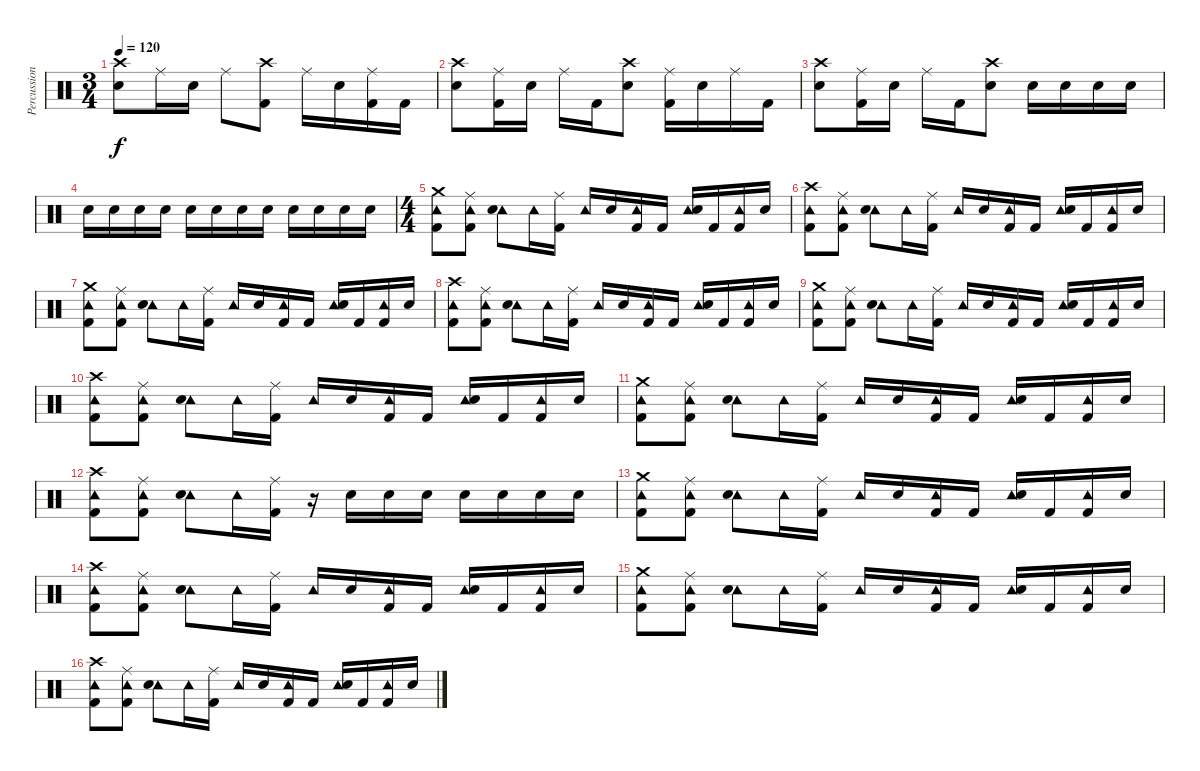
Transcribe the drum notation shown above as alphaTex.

\track ("Percussion" "Percussion") {instrument percussion}
\staff {score}
\articulation defaults
\ts (3 4)
\tempo 120
\clef neutral
\ks c
("Crash high (hit)" "Snare (hit) 2").8{dy f} "Ride (middle)".16 "Snare (hit) 2".16 "Ride (middle)".8 ("Crash high (hit)" "Kick (hit) 2").8 "Ride (middle)".16 "Snare (hit) 2".16 ("Ride (middle)" "Kick (hit) 2").16 "Kick (hit) 2".16 |
("Crash high (hit)" "Snare (hit) 2").8 ("Ride (middle)" "Kick (hit) 2").16 "Snare (hit) 2".16 "Ride (middle)".16 "Kick (hit) 2".16 ("Crash high (hit)" "Snare (hit) 2").8 ("Ride (middle)" "Kick (hit) 2").16 "Snare (hit) 2".16 "Ride (middle)".16 "Kick (hit) 2".16 |
("Crash high (hit)" "Snare (hit) 2").8 ("Ride (middle)" "Kick (hit) 2").16 "Snare (hit) 2".16 "Ride (middle)".16 "Kick (hit) 2".16 ("Crash high (hit)" "Snare (hit) 2").8 "Snare (hit) 2".16 "Snare (hit) 2".16 "Snare (hit) 2".16 "Snare (hit) 2".16 |
"Snare (hit) 2".16 "Snare (hit) 2".16 "Snare (hit) 2".16 "Snare (hit) 2".16 "Snare (hit) 2".16 "Snare (hit) 2".16 "Snare (hit) 2".16 "Snare (hit) 2".16 "Snare (hit) 2".16 "Snare (hit) 2".16 "Snare (hit) 2".16 "Snare (hit) 2".16 |
\ts (4 4)
("Crash medium (hit)" "Tambourine (hit)" "Kick (hit) 2").8 ("Ride (middle)" "Tambourine (hit)" "Kick (hit) 2").8 ("Tambourine (hit)" "Snare (hit) 2").8 "Tambourine (hit)".16 ("Ride (middle)" "Kick (hit) 2").16 "Tambourine (hit)".16 "Snare (hit) 2".16 ("Tambourine (hit)" "Kick (hit) 2").16 "Kick (hit) 2".16 ("Tambourine (hit)" "Snare (hit) 2").16 "Kick (hit) 2".16 ("Tambourine (hit)" "Kick (hit) 2").16 "Snare (hit) 2".16 |
("Crash high (hit)" "Tambourine (hit)" "Kick (hit) 2").8 ("Ride (middle)" "Tambourine (hit)" "Kick (hit) 2").8 ("Tambourine (hit)" "Snare (hit) 2").8 "Tambourine (hit)".16 ("Ride (middle)" "Kick (hit) 2").16 "Tambourine (hit)".16 "Snare (hit) 2".16 ("Tambourine (hit)" "Kick (hit) 2").16 "Kick (hit) 2".16 ("Tambourine (hit)" "Snare (hit) 2").16 "Kick (hit) 2".16 ("Tambourine (hit)" "Kick (hit) 2").16 "Snare (hit) 2".16 |
("Crash medium (hit)" "Tambourine (hit)" "Kick (hit) 2").8 ("Ride (middle)" "Tambourine (hit)" "Kick (hit) 2").8 ("Tambourine (hit)" "Snare (hit) 2").8 "Tambourine (hit)".16 ("Ride (middle)" "Kick (hit) 2").16 "Tambourine (hit)".16 "Snare (hit) 2".16 ("Tambourine (hit)" "Kick (hit) 2").16 "Kick (hit) 2".16 ("Tambourine (hit)" "Snare (hit) 2").16 "Kick (hit) 2".16 ("Tambourine (hit)" "Kick (hit) 2").16 "Snare (hit) 2".16 |
("Crash high (hit)" "Tambourine (hit)" "Kick (hit) 2").8 ("Ride (middle)" "Tambourine (hit)" "Kick (hit) 2").8 ("Tambourine (hit)" "Snare (hit) 2").8 "Tambourine (hit)".16 ("Ride (middle)" "Kick (hit) 2").16 "Tambourine (hit)".16 "Snare (hit) 2".16 ("Tambourine (hit)" "Kick (hit) 2").16 "Kick (hit) 2".16 ("Tambourine (hit)" "Snare (hit) 2").16 "Kick (hit) 2".16 ("Tambourine (hit)" "Kick (hit) 2").16 "Snare (hit) 2".16 |
("Crash medium (hit)" "Tambourine (hit)" "Kick (hit) 2").8 ("Ride (middle)" "Tambourine (hit)" "Kick (hit) 2").8 ("Tambourine (hit)" "Snare (hit) 2").8 "Tambourine (hit)".16 ("Ride (middle)" "Kick (hit) 2").16 "Tambourine (hit)".16 "Snare (hit) 2".16 ("Tambourine (hit)" "Kick (hit) 2").16 "Kick (hit) 2".16 ("Tambourine (hit)" "Snare (hit) 2").16 "Kick (hit) 2".16 ("Tambourine (hit)" "Kick (hit) 2").16 "Snare (hit) 2".16 |
("Crash high (hit)" "Tambourine (hit)" "Kick (hit) 2").8 ("Ride (middle)" "Tambourine (hit)" "Kick (hit) 2").8 ("Tambourine (hit)" "Snare (hit) 2").8 "Tambourine (hit)".16 ("Ride (middle)" "Kick (hit) 2").16 "Tambourine (hit)".16 "Snare (hit) 2".16 ("Tambourine (hit)" "Kick (hit) 2").16 "Kick (hit) 2".16 ("Tambourine (hit)" "Snare (hit) 2").16 "Kick (hit) 2".16 ("Tambourine (hit)" "Kick (hit) 2").16 "Snare (hit) 2".16 |
("Crash medium (hit)" "Tambourine (hit)" "Kick (hit) 2").8 ("Ride (middle)" "Tambourine (hit)" "Kick (hit) 2").8 ("Tambourine (hit)" "Snare (hit) 2").8 "Tambourine (hit)".16 ("Ride (middle)" "Kick (hit) 2").16 "Tambourine (hit)".16 "Snare (hit) 2".16 ("Tambourine (hit)" "Kick (hit) 2").16 "Kick (hit) 2".16 ("Tambourine (hit)" "Snare (hit) 2").16 "Kick (hit) 2".16 ("Tambourine (hit)" "Kick (hit) 2").16 "Snare (hit) 2".16 |
("Crash high (hit)" "Tambourine (hit)" "Kick (hit) 2").8 ("Ride (middle)" "Tambourine (hit)" "Kick (hit) 2").8 ("Tambourine (hit)" "Snare (hit) 2").8 "Tambourine (hit)".16 ("Ride (middle)" "Kick (hit) 2").16 r.16 "Snare (hit) 2".16 "Snare (hit) 2".16 "Snare (hit) 2".16 "Snare (hit) 2".16 "Snare (hit) 2".16 "Snare (hit) 2".16 "Snare (hit) 2".16 |
("Crash medium (hit)" "Tambourine (hit)" "Kick (hit) 2").8 ("Ride (middle)" "Tambourine (hit)" "Kick (hit) 2").8 ("Tambourine (hit)" "Snare (hit) 2").8 "Tambourine (hit)".16 ("Ride (middle)" "Kick (hit) 2").16 "Tambourine (hit)".16 "Snare (hit) 2".16 ("Tambourine (hit)" "Kick (hit) 2").16 "Kick (hit) 2".16 ("Tambourine (hit)" "Snare (hit) 2").16 "Kick (hit) 2".16 ("Tambourine (hit)" "Kick (hit) 2").16 "Snare (hit) 2".16 |
("Crash high (hit)" "Tambourine (hit)" "Kick (hit) 2").8 ("Ride (middle)" "Tambourine (hit)" "Kick (hit) 2").8 ("Tambourine (hit)" "Snare (hit) 2").8 "Tambourine (hit)".16 ("Ride (middle)" "Kick (hit) 2").16 "Tambourine (hit)".16 "Snare (hit) 2".16 ("Tambourine (hit)" "Kick (hit) 2").16 "Kick (hit) 2".16 ("Tambourine (hit)" "Snare (hit) 2").16 "Kick (hit) 2".16 ("Tambourine (hit)" "Kick (hit) 2").16 "Snare (hit) 2".16 |
("Crash medium (hit)" "Tambourine (hit)" "Kick (hit) 2").8 ("Ride (middle)" "Tambourine (hit)" "Kick (hit) 2").8 ("Tambourine (hit)" "Snare (hit) 2").8 "Tambourine (hit)".16 ("Ride (middle)" "Kick (hit) 2").16 "Tambourine (hit)".16 "Snare (hit) 2".16 ("Tambourine (hit)" "Kick (hit) 2").16 "Kick (hit) 2".16 ("Tambourine (hit)" "Snare (hit) 2").16 "Kick (hit) 2".16 ("Tambourine (hit)" "Kick (hit) 2").16 "Snare (hit) 2".16 |
("Crash high (hit)" "Tambourine (hit)" "Kick (hit) 2").8 ("Ride (middle)" "Tambourine (hit)" "Kick (hit) 2").8 ("Tambourine (hit)" "Snare (hit) 2").8 "Tambourine (hit)".16 ("Ride (middle)" "Kick (hit) 2").16 "Tambourine (hit)".16 "Snare (hit) 2".16 ("Tambourine (hit)" "Kick (hit) 2").16 "Kick (hit) 2".16 ("Tambourine (hit)" "Snare (hit) 2").16 "Kick (hit) 2".16 ("Tambourine (hit)" "Kick (hit) 2").16 "Snare (hit) 2".16
